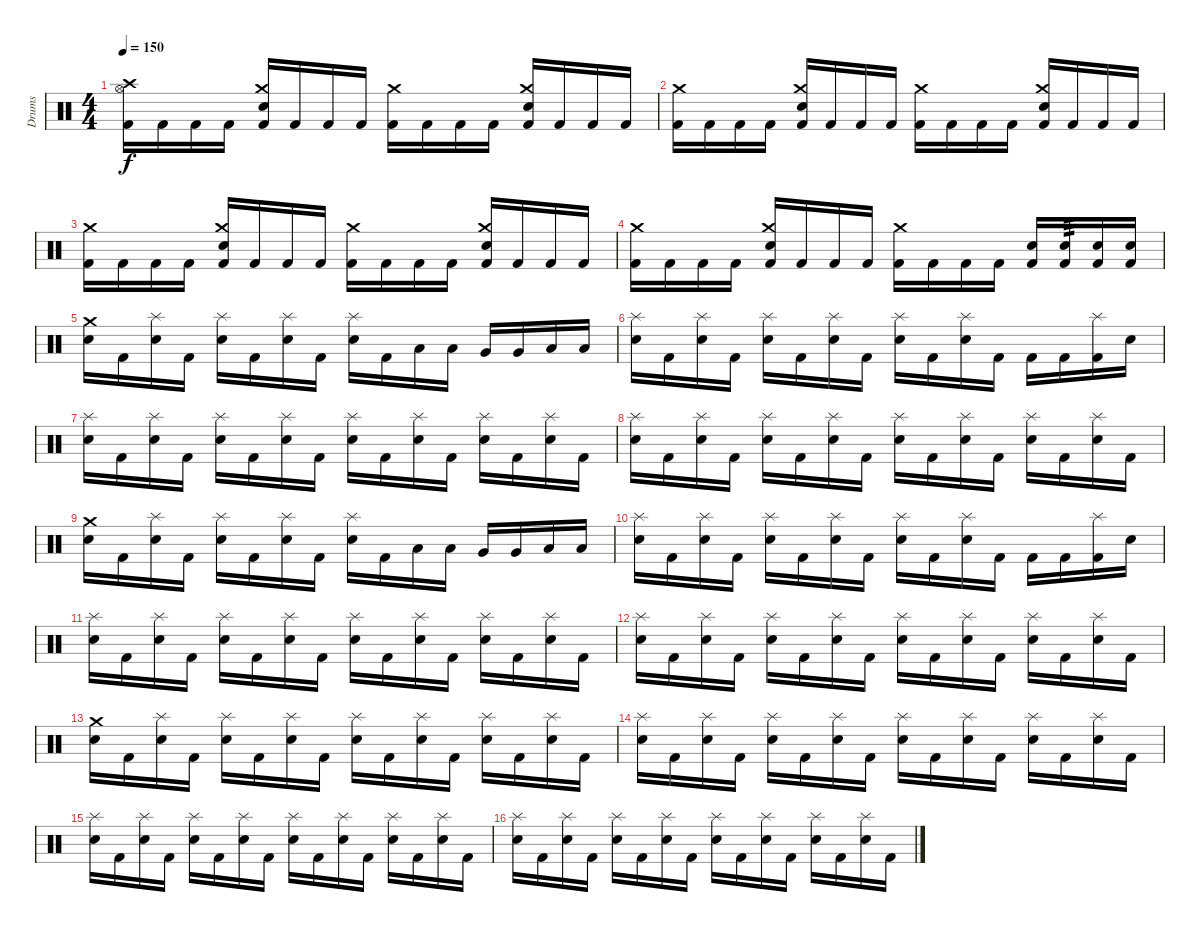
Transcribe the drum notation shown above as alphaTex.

\track ("Drums" "Drums") {instrument percussion}
\staff {score}
\articulation defaults
\ts (4 4)
\tempo 150
\clef neutral
\ks c
("Crash high (hit)" "Hi-Hat (open)" "Kick (hit) 2").16{dy f} "Kick (hit) 2".16 "Kick (hit) 2".16 "Kick (hit) 2".16 ("Crash medium (hit)" "Electric Snare (hit)" "Kick (hit) 2").16 "Kick (hit) 2".16 "Kick (hit) 2".16 "Kick (hit) 2".16 ("Crash medium (hit)" "Kick (hit) 2").16 "Kick (hit) 2".16 "Kick (hit) 2".16 "Kick (hit) 2".16 ("Crash medium (hit)" "Electric Snare (hit)" "Kick (hit) 2").16 "Kick (hit) 2".16 "Kick (hit) 2".16 "Kick (hit) 2".16 |
("Crash medium (hit)" "Kick (hit) 2").16 "Kick (hit) 2".16 "Kick (hit) 2".16 "Kick (hit) 2".16 ("Crash medium (hit)" "Electric Snare (hit)" "Kick (hit) 2").16 "Kick (hit) 2".16 "Kick (hit) 2".16 "Kick (hit) 2".16 ("Crash medium (hit)" "Kick (hit) 2").16 "Kick (hit) 2".16 "Kick (hit) 2".16 "Kick (hit) 2".16 ("Crash medium (hit)" "Electric Snare (hit)" "Kick (hit) 2").16 "Kick (hit) 2".16 "Kick (hit) 2".16 "Kick (hit) 2".16 |
("Crash medium (hit)" "Kick (hit) 2").16 "Kick (hit) 2".16 "Kick (hit) 2".16 "Kick (hit) 2".16 ("Crash medium (hit)" "Electric Snare (hit)" "Kick (hit) 2").16 "Kick (hit) 2".16 "Kick (hit) 2".16 "Kick (hit) 2".16 ("Crash medium (hit)" "Kick (hit) 2").16 "Kick (hit) 2".16 "Kick (hit) 2".16 "Kick (hit) 2".16 ("Crash medium (hit)" "Electric Snare (hit)" "Kick (hit) 2").16 "Kick (hit) 2".16 "Kick (hit) 2".16 "Kick (hit) 2".16 |
("Crash medium (hit)" "Kick (hit) 2").16 "Kick (hit) 2".16 "Kick (hit) 2".16 "Kick (hit) 2".16 ("Crash medium (hit)" "Electric Snare (hit)" "Kick (hit) 2").16 "Kick (hit) 2".16 "Kick (hit) 2".16 "Kick (hit) 2".16 ("Crash medium (hit)" "Kick (hit) 2").16 "Kick (hit) 2".16 "Kick (hit) 2".16 "Kick (hit) 2".16 ("Electric Snare (hit)" "Kick (hit) 2").16 ("Electric Snare (hit)" "Kick (hit) 2").16{tp 3} ("Electric Snare (hit)" "Kick (hit) 2").16 ("Electric Snare (hit)" "Kick (hit) 2").16 |
("Crash medium (hit)" "Electric Snare (hit)").16 "Kick (hit) 2".16 ("Splash (hit)" "Electric Snare (hit)").16 "Kick (hit) 2".16 ("Splash (hit)" "Electric Snare (hit)").16 "Kick (hit) 2".16 ("Splash (hit)" "Electric Snare (hit)").16 "Kick (hit) 2".16 ("Splash (hit)" "Electric Snare (hit)").16 "Kick (hit) 2".16 "Low Tom (hit)".16 "Low Tom (hit)".16 "Very Low Tom (hit)".16 "Very Low Tom (hit)".16 "Low Floor Tom (hit)".16 "Low Floor Tom (hit)".16 |
("Splash (hit)" "Electric Snare (hit)").16 "Kick (hit) 2".16 ("Splash (hit)" "Electric Snare (hit)").16 "Kick (hit) 2".16 ("Splash (hit)" "Electric Snare (hit)").16 "Kick (hit) 2".16 ("Splash (hit)" "Electric Snare (hit)").16 "Kick (hit) 2".16 ("Splash (hit)" "Electric Snare (hit)").16 "Kick (hit) 2".16 ("Splash (hit)" "Electric Snare (hit)").16 "Kick (hit) 2".16 "Kick (hit) 2".16 "Kick (hit) 2".16 ("Splash (hit)" "Kick (hit) 2").16 "Electric Snare (hit)".16 |
("Splash (hit)" "Electric Snare (hit)").16 "Kick (hit) 2".16 ("Splash (hit)" "Electric Snare (hit)").16 "Kick (hit) 2".16 ("Splash (hit)" "Electric Snare (hit)").16 "Kick (hit) 2".16 ("Splash (hit)" "Electric Snare (hit)").16 "Kick (hit) 2".16 ("Splash (hit)" "Electric Snare (hit)").16 "Kick (hit) 2".16 ("Splash (hit)" "Electric Snare (hit)").16 "Kick (hit) 2".16 ("Splash (hit)" "Electric Snare (hit)").16 "Kick (hit) 2".16 ("Splash (hit)" "Electric Snare (hit)").16 "Kick (hit) 2".16 |
("Splash (hit)" "Electric Snare (hit)").16 "Kick (hit) 2".16 ("Splash (hit)" "Electric Snare (hit)").16 "Kick (hit) 2".16 ("Splash (hit)" "Electric Snare (hit)").16 "Kick (hit) 2".16 ("Splash (hit)" "Electric Snare (hit)").16 "Kick (hit) 2".16 ("Splash (hit)" "Electric Snare (hit)").16 "Kick (hit) 2".16 ("Splash (hit)" "Electric Snare (hit)").16 "Kick (hit) 2".16 ("Splash (hit)" "Electric Snare (hit)").16 "Kick (hit) 2".16 ("Splash (hit)" "Electric Snare (hit)").16 "Kick (hit) 2".16 |
("Crash medium (hit)" "Electric Snare (hit)").16 "Kick (hit) 2".16 ("Splash (hit)" "Electric Snare (hit)").16 "Kick (hit) 2".16 ("Splash (hit)" "Electric Snare (hit)").16 "Kick (hit) 2".16 ("Splash (hit)" "Electric Snare (hit)").16 "Kick (hit) 2".16 ("Splash (hit)" "Electric Snare (hit)").16 "Kick (hit) 2".16 "Low Tom (hit)".16 "Low Tom (hit)".16 "Very Low Tom (hit)".16 "Very Low Tom (hit)".16 "Low Floor Tom (hit)".16 "Low Floor Tom (hit)".16 |
("Splash (hit)" "Electric Snare (hit)").16 "Kick (hit) 2".16 ("Splash (hit)" "Electric Snare (hit)").16 "Kick (hit) 2".16 ("Splash (hit)" "Electric Snare (hit)").16 "Kick (hit) 2".16 ("Splash (hit)" "Electric Snare (hit)").16 "Kick (hit) 2".16 ("Splash (hit)" "Electric Snare (hit)").16 "Kick (hit) 2".16 ("Splash (hit)" "Electric Snare (hit)").16 "Kick (hit) 2".16 "Kick (hit) 2".16 "Kick (hit) 2".16 ("Splash (hit)" "Kick (hit) 2").16 "Electric Snare (hit)".16 |
("Splash (hit)" "Electric Snare (hit)").16 "Kick (hit) 2".16 ("Splash (hit)" "Electric Snare (hit)").16 "Kick (hit) 2".16 ("Splash (hit)" "Electric Snare (hit)").16 "Kick (hit) 2".16 ("Splash (hit)" "Electric Snare (hit)").16 "Kick (hit) 2".16 ("Splash (hit)" "Electric Snare (hit)").16 "Kick (hit) 2".16 ("Splash (hit)" "Electric Snare (hit)").16 "Kick (hit) 2".16 ("Splash (hit)" "Electric Snare (hit)").16 "Kick (hit) 2".16 ("Splash (hit)" "Electric Snare (hit)").16 "Kick (hit) 2".16 |
("Splash (hit)" "Electric Snare (hit)").16 "Kick (hit) 2".16 ("Splash (hit)" "Electric Snare (hit)").16 "Kick (hit) 2".16 ("Splash (hit)" "Electric Snare (hit)").16 "Kick (hit) 2".16 ("Splash (hit)" "Electric Snare (hit)").16 "Kick (hit) 2".16 ("Splash (hit)" "Electric Snare (hit)").16 "Kick (hit) 2".16 ("Splash (hit)" "Electric Snare (hit)").16 "Kick (hit) 2".16 ("Splash (hit)" "Electric Snare (hit)").16 "Kick (hit) 2".16 ("Splash (hit)" "Electric Snare (hit)").16 "Kick (hit) 2".16 |
("Crash medium (hit)" "Electric Snare (hit)").16 "Kick (hit) 2".16 ("Splash (hit)" "Electric Snare (hit)").16 "Kick (hit) 2".16 ("Splash (hit)" "Electric Snare (hit)").16 "Kick (hit) 2".16 ("Splash (hit)" "Electric Snare (hit)").16 "Kick (hit) 2".16 ("Splash (hit)" "Electric Snare (hit)").16 "Kick (hit) 2".16 ("Splash (hit)" "Electric Snare (hit)").16 "Kick (hit) 2".16 ("Splash (hit)" "Electric Snare (hit)").16 "Kick (hit) 2".16 ("Splash (hit)" "Electric Snare (hit)").16 "Kick (hit) 2".16 |
("Splash (hit)" "Electric Snare (hit)").16 "Kick (hit) 2".16 ("Splash (hit)" "Electric Snare (hit)").16 "Kick (hit) 2".16 ("Splash (hit)" "Electric Snare (hit)").16 "Kick (hit) 2".16 ("Splash (hit)" "Electric Snare (hit)").16 "Kick (hit) 2".16 ("Splash (hit)" "Electric Snare (hit)").16 "Kick (hit) 2".16 ("Splash (hit)" "Electric Snare (hit)").16 "Kick (hit) 2".16 ("Splash (hit)" "Electric Snare (hit)").16 "Kick (hit) 2".16 ("Splash (hit)" "Electric Snare (hit)").16 "Kick (hit) 2".16 |
("Splash (hit)" "Electric Snare (hit)").16 "Kick (hit) 2".16 ("Splash (hit)" "Electric Snare (hit)").16 "Kick (hit) 2".16 ("Splash (hit)" "Electric Snare (hit)").16 "Kick (hit) 2".16 ("Splash (hit)" "Electric Snare (hit)").16 "Kick (hit) 2".16 ("Splash (hit)" "Electric Snare (hit)").16 "Kick (hit) 2".16 ("Splash (hit)" "Electric Snare (hit)").16 "Kick (hit) 2".16 ("Splash (hit)" "Electric Snare (hit)").16 "Kick (hit) 2".16 ("Splash (hit)" "Electric Snare (hit)").16 "Kick (hit) 2".16 |
("Splash (hit)" "Electric Snare (hit)").16 "Kick (hit) 2".16 ("Splash (hit)" "Electric Snare (hit)").16 "Kick (hit) 2".16 ("Splash (hit)" "Electric Snare (hit)").16 "Kick (hit) 2".16 ("Splash (hit)" "Electric Snare (hit)").16 "Kick (hit) 2".16 ("Splash (hit)" "Electric Snare (hit)").16 "Kick (hit) 2".16 ("Splash (hit)" "Electric Snare (hit)").16 "Kick (hit) 2".16 ("Splash (hit)" "Electric Snare (hit)").16 "Kick (hit) 2".16 ("Splash (hit)" "Electric Snare (hit)").16 "Kick (hit) 2".16
